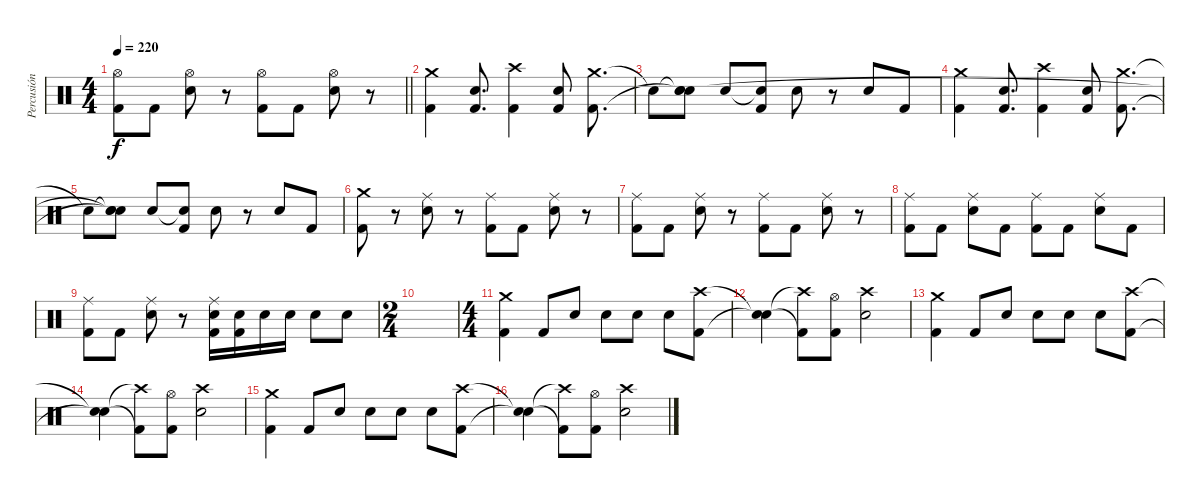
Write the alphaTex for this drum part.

\track ("Percusión" "Percusión") {instrument percussion}
\staff {score}
\articulation defaults
\ts (4 4)
\tempo 220
\clef neutral
\barLineRight lightlight
\ks c
("Hi-Hat (open)" "Kick (hit) 2").8{dy f} "Kick (hit) 2".8 ("Hi-Hat (open)" "Electric Snare (hit)").8 r.8 ("Hi-Hat (open)" "Kick (hit) 2").8 "Kick (hit) 2".8 ("Hi-Hat (open)" "Electric Snare (hit)").8 r.8 |
("Crash medium (hit)" "Kick (hit) 2").4 ("Electric Snare (hit)" "Kick (hit) 2").8{d} ("Crash high (hit)" "Kick (hit) 2").4 ("Electric Snare (hit)" "Kick (hit) 2").8 ("Crash medium (hit)" "Kick (hit) 2").8{d} |
"Snare (hit)"{t}.8 ("Snare (hit)"{t} "Snare (hit)"{t} "Snare (hit)").8 "Electric Snare (hit)".8 ("Snare (hit)"{t} "Kick (hit) 2").8 "Electric Snare (hit)".8 r.8 "Electric Snare (hit)".8 "Kick (hit) 2".8 |
("Crash medium (hit)" "Kick (hit) 2").4 ("Electric Snare (hit)" "Kick (hit) 2").8{d} ("Crash high (hit)" "Kick (hit) 2").4 ("Electric Snare (hit)" "Kick (hit) 2").8 ("Crash medium (hit)" "Kick (hit) 2").8{d} |
"Snare (hit)"{t}.8 ("Snare (hit)"{t} "Snare (hit)"{t} "Snare (hit)"{t}).8 "Electric Snare (hit)".8 ("Snare (hit)"{t} "Kick (hit) 2").8 "Electric Snare (hit)".8 r.8 "Electric Snare (hit)".8 "Kick (hit) 2".8 |
("Crash medium (hit)" "Kick (hit) 2").8 r.8 ("Ride (middle)" "Electric Snare (hit)").8 r.8 ("Ride (middle)" "Kick (hit) 2").8 "Kick (hit) 2".8 ("Ride (middle)" "Electric Snare (hit)").8 r.8 |
("Ride (middle)" "Kick (hit) 2").8 "Kick (hit) 2".8 ("Ride (middle)" "Electric Snare (hit)").8 r.8 ("Ride (middle)" "Kick (hit) 2").8 "Kick (hit) 2".8 ("Ride (middle)" "Electric Snare (hit)").8 r.8 |
("Ride (middle)" "Kick (hit) 2").8 "Kick (hit) 2".8 ("Ride (middle)" "Electric Snare (hit)").8 "Kick (hit) 2".8 ("Ride (middle)" "Kick (hit) 2").8 "Kick (hit) 2".8 ("Ride (middle)" "Electric Snare (hit)").8 "Kick (hit) 2".8 |
("Ride (middle)" "Kick (hit) 2").8 "Kick (hit) 2".8 ("Ride (middle)" "Electric Snare (hit)").8 r.8 ("Ride (middle)" "Electric Snare (hit)" "Kick (hit) 2").16 ("Electric Snare (hit)" "Kick (hit) 2").16 "Electric Snare (hit)".16 "Electric Snare (hit)".16 "Electric Snare (hit)".8 "Electric Snare (hit)".8 |
\ts (2 4)
|
\ts (4 4)
("Crash medium (hit)" "Kick (hit) 2").4 "Kick (hit) 2".8 "Electric Snare (hit)".8 "Electric Snare (hit)".8 "Electric Snare (hit)".8 "Electric Snare (hit)".8 ("Crash high (hit)" "Kick (hit) 2").8 |
("Snare (hit)"{t} "Snare (hit)"{t}).4 ("Crash high (hit)"{t} "Kick (hit) 2"{t}).8 ("Hi-Hat (open)" "Kick (hit) 2").8 ("Crash high (hit)" "Electric Snare (hit)").2 |
("Crash medium (hit)" "Kick (hit) 2").4 "Kick (hit) 2".8 "Electric Snare (hit)".8 "Electric Snare (hit)".8 "Electric Snare (hit)".8 "Electric Snare (hit)".8 ("Crash high (hit)" "Kick (hit) 2").8 |
("Snare (hit)"{t} "Snare (hit)"{t}).4 ("Crash high (hit)"{t} "Kick (hit) 2"{t}).8 ("Hi-Hat (open)" "Kick (hit) 2").8 ("Crash high (hit)" "Electric Snare (hit)").2 |
("Crash medium (hit)" "Kick (hit) 2").4 "Kick (hit) 2".8 "Electric Snare (hit)".8 "Electric Snare (hit)".8 "Electric Snare (hit)".8 "Electric Snare (hit)".8 ("Crash high (hit)" "Kick (hit) 2").8 |
("Snare (hit)"{t} "Snare (hit)"{t}).4 ("Crash high (hit)"{t} "Kick (hit) 2"{t}).8 ("Hi-Hat (open)" "Kick (hit) 2").8 ("Crash high (hit)" "Electric Snare (hit)").2
